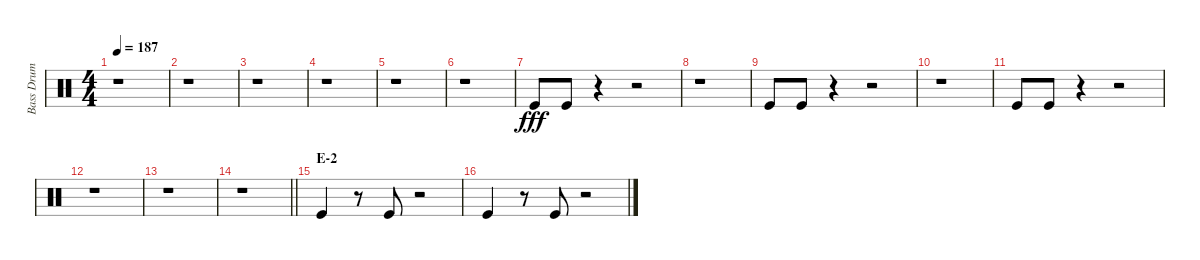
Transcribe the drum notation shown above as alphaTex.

\track ("Bass Drum" "Bass Drum") {instrument percussion}
\staff {score}
\articulation defaults
\ts (4 4)
\tempo 187
\clef neutral
\ks c
r.1{dy fff} |
r.1 |
r.1 |
r.1 |
r.1 |
r.1 |
"Kick (hit)".8 "Kick (hit)".8 r.4 r.2 |
r.1 |
"Kick (hit)".8 "Kick (hit)".8 r.4 r.2 |
r.1 |
"Kick (hit)".8 "Kick (hit)".8 r.4 r.2 |
r.1 |
r.1 |
\barLineRight lightlight
r.1 |
\section ("" "E-2")
"Kick (hit)".4 r.8 "Kick (hit)".8 r.2 |
"Kick (hit)".4 r.8 "Kick (hit)".8 r.2
